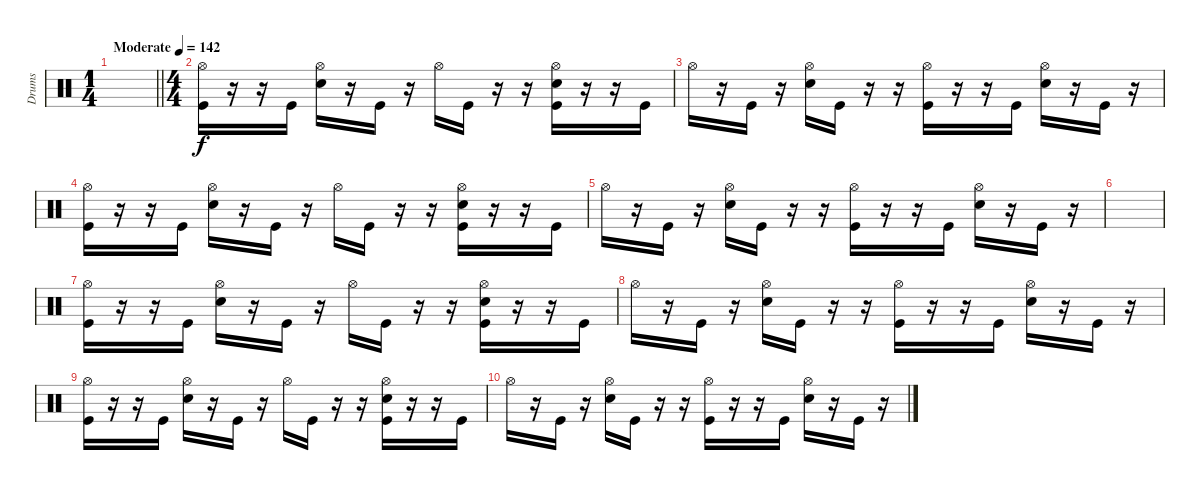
\track ("Drums" "Drums") {instrument percussion}
\staff
\articulation defaults
\ts (1 4)
\tempo (142 "Moderate")
\clef neutral
\barLineRight lightlight
\ks c
|
\ts (4 4)
("Hi-Hat (open)" "Kick (hit)").16 r.16 r.16 "Kick (hit)".16 ("Hi-Hat (open)" "Electric Snare (hit)").16 r.16 "Kick (hit)".16 r.16 "Hi-Hat (open)".16 "Kick (hit)".16 r.16 r.16 ("Hi-Hat (open)" "Electric Snare (hit)" "Kick (hit)").16 r.16 r.16 "Kick (hit)".16 |
"Hi-Hat (open)".16 r.16 "Kick (hit)".16 r.16 ("Hi-Hat (open)" "Electric Snare (hit)").16 "Kick (hit)".16 r.16 r.16 ("Hi-Hat (open)" "Kick (hit)").16 r.16 r.16 "Kick (hit)".16 ("Hi-Hat (open)" "Electric Snare (hit)").16 r.16 "Kick (hit)".16 r.16 |
("Hi-Hat (open)" "Kick (hit)").16 r.16 r.16 "Kick (hit)".16 ("Hi-Hat (open)" "Electric Snare (hit)").16 r.16 "Kick (hit)".16 r.16 "Hi-Hat (open)".16 "Kick (hit)".16 r.16 r.16 ("Hi-Hat (open)" "Electric Snare (hit)" "Kick (hit)").16 r.16 r.16 "Kick (hit)".16 |
"Hi-Hat (open)".16 r.16 "Kick (hit)".16 r.16 ("Hi-Hat (open)" "Electric Snare (hit)").16 "Kick (hit)".16 r.16 r.16 ("Hi-Hat (open)" "Kick (hit)").16 r.16 r.16 "Kick (hit)".16 ("Hi-Hat (open)" "Electric Snare (hit)").16 r.16 "Kick (hit)".16 r.16 |
|
("Hi-Hat (open)" "Kick (hit)").16 r.16 r.16 "Kick (hit)".16 ("Hi-Hat (open)" "Electric Snare (hit)").16 r.16 "Kick (hit)".16 r.16 "Hi-Hat (open)".16 "Kick (hit)".16 r.16 r.16 ("Hi-Hat (open)" "Electric Snare (hit)" "Kick (hit)").16 r.16 r.16 "Kick (hit)".16 |
"Hi-Hat (open)".16 r.16 "Kick (hit)".16 r.16 ("Hi-Hat (open)" "Electric Snare (hit)").16 "Kick (hit)".16 r.16 r.16 ("Hi-Hat (open)" "Kick (hit)").16 r.16 r.16 "Kick (hit)".16 ("Hi-Hat (open)" "Electric Snare (hit)").16 r.16 "Kick (hit)".16 r.16 |
("Hi-Hat (open)" "Kick (hit)").16 r.16 r.16 "Kick (hit)".16 ("Hi-Hat (open)" "Electric Snare (hit)").16 r.16 "Kick (hit)".16 r.16 "Hi-Hat (open)".16 "Kick (hit)".16 r.16 r.16 ("Hi-Hat (open)" "Electric Snare (hit)" "Kick (hit)").16 r.16 r.16 "Kick (hit)".16 |
"Hi-Hat (open)".16 r.16 "Kick (hit)".16 r.16 ("Hi-Hat (open)" "Electric Snare (hit)").16 "Kick (hit)".16 r.16 r.16 ("Hi-Hat (open)" "Kick (hit)").16 r.16 r.16 "Kick (hit)".16 ("Hi-Hat (open)" "Electric Snare (hit)").16 r.16 "Kick (hit)".16 r.16
